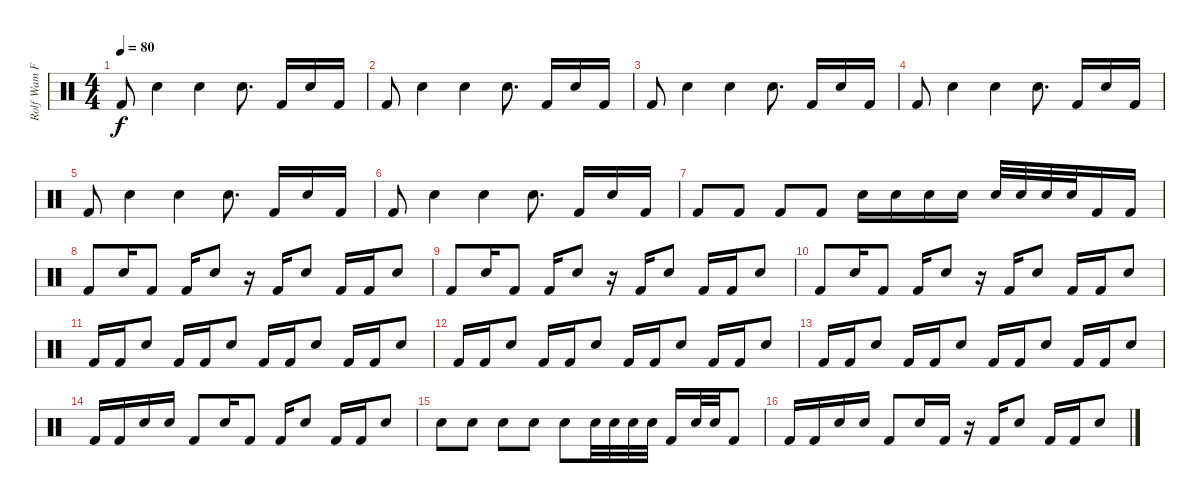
\track ("Rolf Wam Fjell" "Rolf Wam F") {instrument percussion}
\staff {score}
\articulation defaults
\ts (4 4)
\tempo 80
\clef neutral
\ks c "Kick (hit) 2".8{dy f} "Snare (hit) 2".4 "Snare (hit) 2".4 "Snare (hit) 2".8{d} "Kick (hit) 2".16 "Snare (hit) 2".16 "Kick (hit) 2".16
|
"Kick (hit) 2".8 "Snare (hit) 2".4 "Snare (hit) 2".4 "Snare (hit) 2".8{d} "Kick (hit) 2".16 "Snare (hit) 2".16 "Kick (hit) 2".16 |
"Kick (hit) 2".8 "Snare (hit) 2".4 "Snare (hit) 2".4 "Snare (hit) 2".8{d} "Kick (hit) 2".16 "Snare (hit) 2".16 "Kick (hit) 2".16 |
"Kick (hit) 2".8 "Snare (hit) 2".4 "Snare (hit) 2".4 "Snare (hit) 2".8{d} "Kick (hit) 2".16 "Snare (hit) 2".16 "Kick (hit) 2".16 |
"Kick (hit) 2".8 "Snare (hit) 2".4 "Snare (hit) 2".4 "Snare (hit) 2".8{d} "Kick (hit) 2".16 "Snare (hit) 2".16 "Kick (hit) 2".16 |
"Kick (hit) 2".8 "Snare (hit) 2".4 "Snare (hit) 2".4 "Snare (hit) 2".8{d} "Kick (hit) 2".16 "Snare (hit) 2".16 "Kick (hit) 2".16 |
"Kick (hit) 2".8 "Kick (hit) 2".8 "Kick (hit) 2".8 "Kick (hit) 2".8 "Snare (hit) 2".16 "Snare (hit) 2".16 "Snare (hit) 2".16 "Snare (hit) 2".16 "Snare (hit) 2".32 "Snare (hit) 2".32 "Snare (hit) 2".32 "Snare (hit) 2".32 "Kick (hit) 2".16 "Kick (hit) 2".16 |
"Kick (hit) 2".8 "Snare (hit) 2".16 "Kick (hit) 2".8 "Kick (hit) 2".16 "Snare (hit) 2".8 r.16 "Kick (hit) 2".16 "Snare (hit) 2".8 "Kick (hit) 2".16 "Kick (hit) 2".16 "Snare (hit) 2".8 |
"Kick (hit) 2".8 "Snare (hit) 2".16 "Kick (hit) 2".8 "Kick (hit) 2".16 "Snare (hit) 2".8 r.16 "Kick (hit) 2".16 "Snare (hit) 2".8 "Kick (hit) 2".16 "Kick (hit) 2".16 "Snare (hit) 2".8 |
"Kick (hit) 2".8 "Snare (hit) 2".16 "Kick (hit) 2".8 "Kick (hit) 2".16 "Snare (hit) 2".8 r.16 "Kick (hit) 2".16 "Snare (hit) 2".8 "Kick (hit) 2".16 "Kick (hit) 2".16 "Snare (hit) 2".8 |
"Kick (hit) 2".16 "Kick (hit) 2".16 "Snare (hit) 2".8 "Kick (hit) 2".16 "Kick (hit) 2".16 "Snare (hit) 2".8 "Kick (hit) 2".16 "Kick (hit) 2".16 "Snare (hit) 2".8 "Kick (hit) 2".16 "Kick (hit) 2".16 "Snare (hit) 2".8 |
"Kick (hit) 2".16 "Kick (hit) 2".16 "Snare (hit) 2".8 "Kick (hit) 2".16 "Kick (hit) 2".16 "Snare (hit) 2".8 "Kick (hit) 2".16 "Kick (hit) 2".16 "Snare (hit) 2".8 "Kick (hit) 2".16 "Kick (hit) 2".16 "Snare (hit) 2".8 |
"Kick (hit) 2".16 "Kick (hit) 2".16 "Snare (hit) 2".8 "Kick (hit) 2".16 "Kick (hit) 2".16 "Snare (hit) 2".8 "Kick (hit) 2".16 "Kick (hit) 2".16 "Snare (hit) 2".8 "Kick (hit) 2".16 "Kick (hit) 2".16 "Snare (hit) 2".8 |
"Kick (hit) 2".16 "Kick (hit) 2".16 "Snare (hit) 2".16 "Snare (hit) 2".16 "Kick (hit) 2".8 "Snare (hit) 2".16 "Kick (hit) 2".8 "Kick (hit) 2".16 "Snare (hit) 2".8 "Kick (hit) 2".16 "Kick (hit) 2".16 "Snare (hit) 2".8 |
"Snare (hit) 2".8 "Snare (hit) 2".8 "Snare (hit) 2".8 "Snare (hit) 2".8 "Snare (hit) 2".8 "Snare (hit) 2".32 "Snare (hit) 2".32 "Snare (hit) 2".32 "Snare (hit) 2".32 "Kick (hit) 2".16 "Snare (hit) 2".32 "Snare (hit) 2".32 "Kick (hit) 2".8 |
"Kick (hit) 2".16 "Kick (hit) 2".16 "Snare (hit) 2".16 "Snare (hit) 2".16 "Kick (hit) 2".8 "Snare (hit) 2".16 "Kick (hit) 2".16 r.16 "Kick (hit) 2".16 "Snare (hit) 2".8 "Kick (hit) 2".16 "Kick (hit) 2".16 "Snare (hit) 2".8
